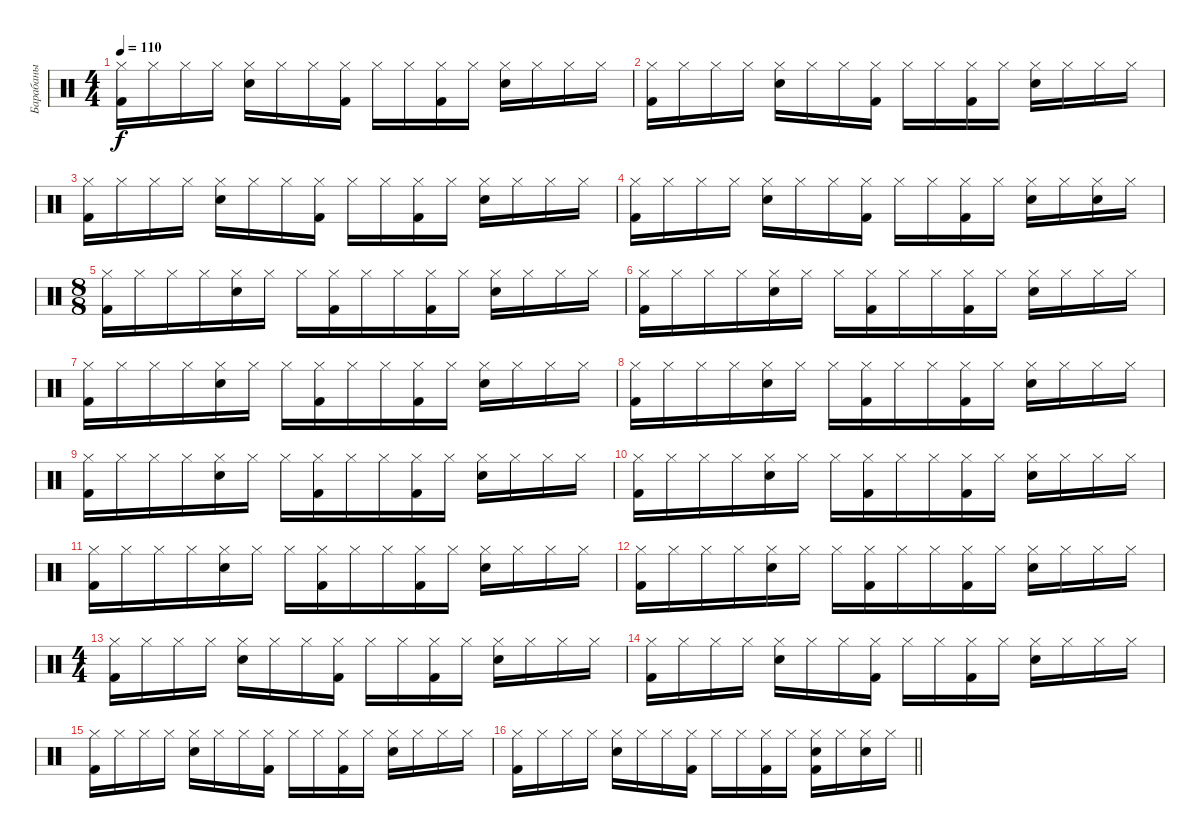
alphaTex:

\track ("Барабаны" "Барабаны") {instrument percussion}
\staff {score}
\articulation defaults
\ts (4 4)
\tempo 110
\clef neutral
\ks c
("Hi-Hat (closed)" "Kick (hit) 2").16{dy f} "Hi-Hat (closed)".16 "Hi-Hat (closed)".16 "Hi-Hat (closed)".16 ("Hi-Hat (closed)" "Snare (hit) 2").16 "Hi-Hat (closed)".16 "Hi-Hat (closed)".16 ("Hi-Hat (closed)" "Kick (hit) 2").16 "Hi-Hat (closed)".16 "Hi-Hat (closed)".16 ("Hi-Hat (closed)" "Kick (hit) 2").16 "Hi-Hat (closed)".16 ("Hi-Hat (closed)" "Snare (hit) 2").16 "Hi-Hat (closed)".16 "Hi-Hat (closed)".16 "Hi-Hat (closed)".16 |
("Hi-Hat (closed)" "Kick (hit) 2").16 "Hi-Hat (closed)".16 "Hi-Hat (closed)".16 "Hi-Hat (closed)".16 ("Hi-Hat (closed)" "Snare (hit) 2").16 "Hi-Hat (closed)".16 "Hi-Hat (closed)".16 ("Hi-Hat (closed)" "Kick (hit) 2").16 "Hi-Hat (closed)".16 "Hi-Hat (closed)".16 ("Hi-Hat (closed)" "Kick (hit) 2").16 "Hi-Hat (closed)".16 ("Hi-Hat (closed)" "Snare (hit) 2").16 "Hi-Hat (closed)".16 "Hi-Hat (closed)".16 "Hi-Hat (closed)".16 |
("Hi-Hat (closed)" "Kick (hit) 2").16 "Hi-Hat (closed)".16 "Hi-Hat (closed)".16 "Hi-Hat (closed)".16 ("Hi-Hat (closed)" "Snare (hit) 2").16 "Hi-Hat (closed)".16 "Hi-Hat (closed)".16 ("Hi-Hat (closed)" "Kick (hit) 2").16 "Hi-Hat (closed)".16 "Hi-Hat (closed)".16 ("Hi-Hat (closed)" "Kick (hit) 2").16 "Hi-Hat (closed)".16 ("Hi-Hat (closed)" "Snare (hit) 2").16 "Hi-Hat (closed)".16 "Hi-Hat (closed)".16 "Hi-Hat (closed)".16 |
("Hi-Hat (closed)" "Kick (hit) 2").16 "Hi-Hat (closed)".16 "Hi-Hat (closed)".16 "Hi-Hat (closed)".16 ("Hi-Hat (closed)" "Snare (hit) 2").16 "Hi-Hat (closed)".16 "Hi-Hat (closed)".16 ("Hi-Hat (closed)" "Kick (hit) 2").16 "Hi-Hat (closed)".16 "Hi-Hat (closed)".16 ("Hi-Hat (closed)" "Kick (hit) 2").16 "Hi-Hat (closed)".16 ("Hi-Hat (closed)" "Snare (hit) 2").16 "Hi-Hat (closed)".16 ("Hi-Hat (closed)" "Snare (hit) 2").16 "Hi-Hat (closed)".16 |
\ts (8 8)
("Hi-Hat (closed)" "Kick (hit) 2").16 "Hi-Hat (closed)".16 "Hi-Hat (closed)".16 "Hi-Hat (closed)".16 ("Hi-Hat (closed)" "Snare (hit) 2").16 "Hi-Hat (closed)".16 "Hi-Hat (closed)".16 ("Hi-Hat (closed)" "Kick (hit) 2").16 "Hi-Hat (closed)".16 "Hi-Hat (closed)".16 ("Hi-Hat (closed)" "Kick (hit) 2").16 "Hi-Hat (closed)".16 ("Hi-Hat (closed)" "Snare (hit) 2").16 "Hi-Hat (closed)".16 "Hi-Hat (closed)".16 "Hi-Hat (closed)".16 |
("Hi-Hat (closed)" "Kick (hit) 2").16 "Hi-Hat (closed)".16 "Hi-Hat (closed)".16 "Hi-Hat (closed)".16 ("Hi-Hat (closed)" "Snare (hit) 2").16 "Hi-Hat (closed)".16 "Hi-Hat (closed)".16 ("Hi-Hat (closed)" "Kick (hit) 2").16 "Hi-Hat (closed)".16 "Hi-Hat (closed)".16 ("Hi-Hat (closed)" "Kick (hit) 2").16 "Hi-Hat (closed)".16 ("Hi-Hat (closed)" "Snare (hit) 2").16 "Hi-Hat (closed)".16 "Hi-Hat (closed)".16 "Hi-Hat (closed)".16 |
("Hi-Hat (closed)" "Kick (hit) 2").16 "Hi-Hat (closed)".16 "Hi-Hat (closed)".16 "Hi-Hat (closed)".16 ("Hi-Hat (closed)" "Snare (hit) 2").16 "Hi-Hat (closed)".16 "Hi-Hat (closed)".16 ("Hi-Hat (closed)" "Kick (hit) 2").16 "Hi-Hat (closed)".16 "Hi-Hat (closed)".16 ("Hi-Hat (closed)" "Kick (hit) 2").16 "Hi-Hat (closed)".16 ("Hi-Hat (closed)" "Snare (hit) 2").16 "Hi-Hat (closed)".16 "Hi-Hat (closed)".16 "Hi-Hat (closed)".16 |
("Hi-Hat (closed)" "Kick (hit) 2").16 "Hi-Hat (closed)".16 "Hi-Hat (closed)".16 "Hi-Hat (closed)".16 ("Hi-Hat (closed)" "Snare (hit) 2").16 "Hi-Hat (closed)".16 "Hi-Hat (closed)".16 ("Hi-Hat (closed)" "Kick (hit) 2").16 "Hi-Hat (closed)".16 "Hi-Hat (closed)".16 ("Hi-Hat (closed)" "Kick (hit) 2").16 "Hi-Hat (closed)".16 ("Hi-Hat (closed)" "Snare (hit) 2").16 "Hi-Hat (closed)".16 "Hi-Hat (closed)".16 "Hi-Hat (closed)".16 |
("Hi-Hat (closed)" "Kick (hit) 2").16 "Hi-Hat (closed)".16 "Hi-Hat (closed)".16 "Hi-Hat (closed)".16 ("Hi-Hat (closed)" "Snare (hit) 2").16 "Hi-Hat (closed)".16 "Hi-Hat (closed)".16 ("Hi-Hat (closed)" "Kick (hit) 2").16 "Hi-Hat (closed)".16 "Hi-Hat (closed)".16 ("Hi-Hat (closed)" "Kick (hit) 2").16 "Hi-Hat (closed)".16 ("Hi-Hat (closed)" "Snare (hit) 2").16 "Hi-Hat (closed)".16 "Hi-Hat (closed)".16 "Hi-Hat (closed)".16 |
("Hi-Hat (closed)" "Kick (hit) 2").16 "Hi-Hat (closed)".16 "Hi-Hat (closed)".16 "Hi-Hat (closed)".16 ("Hi-Hat (closed)" "Snare (hit) 2").16 "Hi-Hat (closed)".16 "Hi-Hat (closed)".16 ("Hi-Hat (closed)" "Kick (hit) 2").16 "Hi-Hat (closed)".16 "Hi-Hat (closed)".16 ("Hi-Hat (closed)" "Kick (hit) 2").16 "Hi-Hat (closed)".16 ("Hi-Hat (closed)" "Snare (hit) 2").16 "Hi-Hat (closed)".16 "Hi-Hat (closed)".16 "Hi-Hat (closed)".16 |
("Hi-Hat (closed)" "Kick (hit) 2").16 "Hi-Hat (closed)".16 "Hi-Hat (closed)".16 "Hi-Hat (closed)".16 ("Hi-Hat (closed)" "Snare (hit) 2").16 "Hi-Hat (closed)".16 "Hi-Hat (closed)".16 ("Hi-Hat (closed)" "Kick (hit) 2").16 "Hi-Hat (closed)".16 "Hi-Hat (closed)".16 ("Hi-Hat (closed)" "Kick (hit) 2").16 "Hi-Hat (closed)".16 ("Hi-Hat (closed)" "Snare (hit) 2").16 "Hi-Hat (closed)".16 "Hi-Hat (closed)".16 "Hi-Hat (closed)".16 |
("Hi-Hat (closed)" "Kick (hit) 2").16 "Hi-Hat (closed)".16 "Hi-Hat (closed)".16 "Hi-Hat (closed)".16 ("Hi-Hat (closed)" "Snare (hit) 2").16 "Hi-Hat (closed)".16 "Hi-Hat (closed)".16 ("Hi-Hat (closed)" "Kick (hit) 2").16 "Hi-Hat (closed)".16 "Hi-Hat (closed)".16 ("Hi-Hat (closed)" "Kick (hit) 2").16 "Hi-Hat (closed)".16 ("Hi-Hat (closed)" "Snare (hit) 2").16 "Hi-Hat (closed)".16 "Hi-Hat (closed)".16 "Hi-Hat (closed)".16 |
\ts (4 4)
("Hi-Hat (closed)" "Kick (hit) 2").16 "Hi-Hat (closed)".16 "Hi-Hat (closed)".16 "Hi-Hat (closed)".16 ("Hi-Hat (closed)" "Snare (hit) 2").16 "Hi-Hat (closed)".16 "Hi-Hat (closed)".16 ("Hi-Hat (closed)" "Kick (hit) 2").16 "Hi-Hat (closed)".16 "Hi-Hat (closed)".16 ("Hi-Hat (closed)" "Kick (hit) 2").16 "Hi-Hat (closed)".16 ("Hi-Hat (closed)" "Snare (hit) 2").16 "Hi-Hat (closed)".16 "Hi-Hat (closed)".16 "Hi-Hat (closed)".16 |
("Hi-Hat (closed)" "Kick (hit) 2").16 "Hi-Hat (closed)".16 "Hi-Hat (closed)".16 "Hi-Hat (closed)".16 ("Hi-Hat (closed)" "Snare (hit) 2").16 "Hi-Hat (closed)".16 "Hi-Hat (closed)".16 ("Hi-Hat (closed)" "Kick (hit) 2").16 "Hi-Hat (closed)".16 "Hi-Hat (closed)".16 ("Hi-Hat (closed)" "Kick (hit) 2").16 "Hi-Hat (closed)".16 ("Hi-Hat (closed)" "Snare (hit) 2").16 "Hi-Hat (closed)".16 "Hi-Hat (closed)".16 "Hi-Hat (closed)".16 |
("Hi-Hat (closed)" "Kick (hit) 2").16 "Hi-Hat (closed)".16 "Hi-Hat (closed)".16 "Hi-Hat (closed)".16 ("Hi-Hat (closed)" "Snare (hit) 2").16 "Hi-Hat (closed)".16 "Hi-Hat (closed)".16 ("Hi-Hat (closed)" "Kick (hit) 2").16 "Hi-Hat (closed)".16 "Hi-Hat (closed)".16 ("Hi-Hat (closed)" "Kick (hit) 2").16 "Hi-Hat (closed)".16 ("Hi-Hat (closed)" "Snare (hit) 2").16 "Hi-Hat (closed)".16 "Hi-Hat (closed)".16 "Hi-Hat (closed)".16 |
\barLineRight lightlight
("Hi-Hat (closed)" "Kick (hit) 2").16 "Hi-Hat (closed)".16 "Hi-Hat (closed)".16 "Hi-Hat (closed)".16 ("Hi-Hat (closed)" "Snare (hit) 2").16 "Hi-Hat (closed)".16 "Hi-Hat (closed)".16 ("Hi-Hat (closed)" "Kick (hit) 2").16 "Hi-Hat (closed)".16 "Hi-Hat (closed)".16 ("Hi-Hat (closed)" "Kick (hit) 2").16 "Hi-Hat (closed)".16 ("Hi-Hat (closed)" "Snare (hit) 2" "Kick (hit) 2").16 "Hi-Hat (closed)".16 ("Hi-Hat (closed)" "Snare (hit) 2").16 "Hi-Hat (closed)".16
